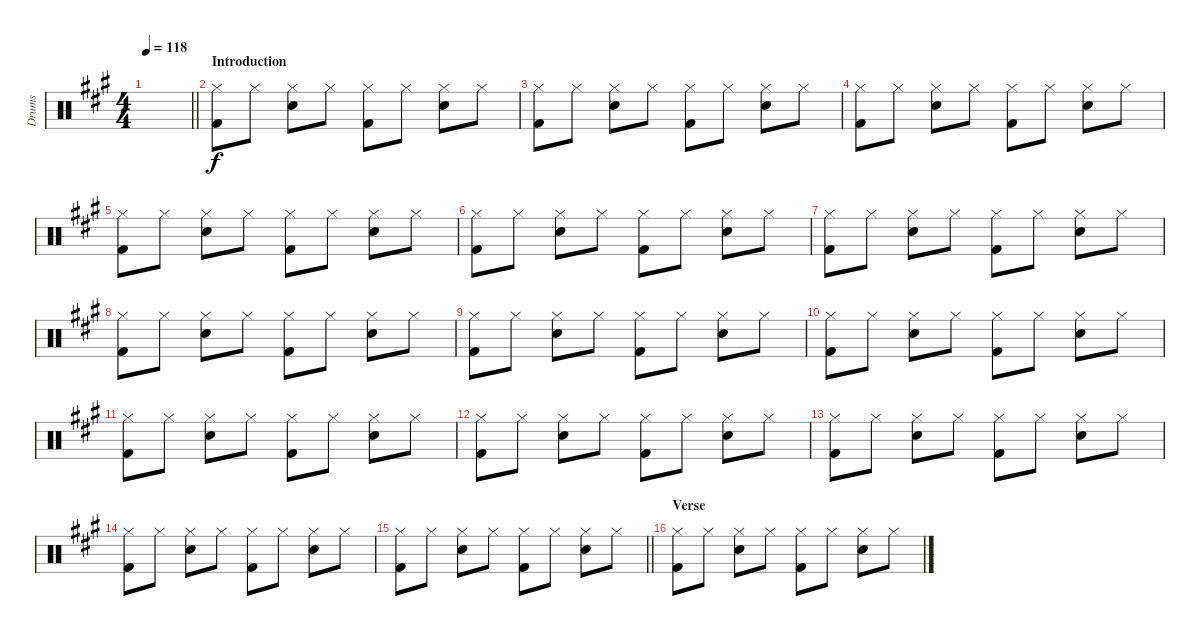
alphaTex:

\track ("Drums" "Drums") {instrument percussion}
\staff {score}
\articulation defaults
\ts (4 4)
\tempo 118
\clef neutral
\barLineRight lightlight
\ks f#minor
|
\section ("" "Introduction")
("Hi-Hat (closed)" "Kick (hit) 2").8 "Hi-Hat (closed)".8 ("Hi-Hat (closed)" "Snare (hit) 2").8 "Hi-Hat (closed)".8 ("Hi-Hat (closed)" "Kick (hit) 2").8 "Hi-Hat (closed)".8 ("Hi-Hat (closed)" "Snare (hit) 2").8 "Hi-Hat (closed)".8 |
("Hi-Hat (closed)" "Kick (hit) 2").8 "Hi-Hat (closed)".8 ("Hi-Hat (closed)" "Snare (hit) 2").8 "Hi-Hat (closed)".8 ("Hi-Hat (closed)" "Kick (hit) 2").8 "Hi-Hat (closed)".8 ("Hi-Hat (closed)" "Snare (hit) 2").8 "Hi-Hat (closed)".8 |
("Hi-Hat (closed)" "Kick (hit) 2").8 "Hi-Hat (closed)".8 ("Hi-Hat (closed)" "Snare (hit) 2").8 "Hi-Hat (closed)".8 ("Hi-Hat (closed)" "Kick (hit) 2").8 "Hi-Hat (closed)".8 ("Hi-Hat (closed)" "Snare (hit) 2").8 "Hi-Hat (closed)".8 |
("Hi-Hat (closed)" "Kick (hit) 2").8 "Hi-Hat (closed)".8 ("Hi-Hat (closed)" "Snare (hit) 2").8 "Hi-Hat (closed)".8 ("Hi-Hat (closed)" "Kick (hit) 2").8 "Hi-Hat (closed)".8 ("Hi-Hat (closed)" "Snare (hit) 2").8 "Hi-Hat (closed)".8 |
("Hi-Hat (closed)" "Kick (hit) 2").8 "Hi-Hat (closed)".8 ("Hi-Hat (closed)" "Snare (hit) 2").8 "Hi-Hat (closed)".8 ("Hi-Hat (closed)" "Kick (hit) 2").8 "Hi-Hat (closed)".8 ("Hi-Hat (closed)" "Snare (hit) 2").8 "Hi-Hat (closed)".8 |
("Hi-Hat (closed)" "Kick (hit) 2").8 "Hi-Hat (closed)".8 ("Hi-Hat (closed)" "Snare (hit) 2").8 "Hi-Hat (closed)".8 ("Hi-Hat (closed)" "Kick (hit) 2").8 "Hi-Hat (closed)".8 ("Hi-Hat (closed)" "Snare (hit) 2").8 "Hi-Hat (closed)".8 |
("Hi-Hat (closed)" "Kick (hit) 2").8 "Hi-Hat (closed)".8 ("Hi-Hat (closed)" "Snare (hit) 2").8 "Hi-Hat (closed)".8 ("Hi-Hat (closed)" "Kick (hit) 2").8 "Hi-Hat (closed)".8 ("Hi-Hat (closed)" "Snare (hit) 2").8 "Hi-Hat (closed)".8 |
("Hi-Hat (closed)" "Kick (hit) 2").8 "Hi-Hat (closed)".8 ("Hi-Hat (closed)" "Snare (hit) 2").8 "Hi-Hat (closed)".8 ("Hi-Hat (closed)" "Kick (hit) 2").8 "Hi-Hat (closed)".8 ("Hi-Hat (closed)" "Snare (hit) 2").8 "Hi-Hat (closed)".8 |
("Hi-Hat (closed)" "Kick (hit) 2").8 "Hi-Hat (closed)".8 ("Hi-Hat (closed)" "Snare (hit) 2").8 "Hi-Hat (closed)".8 ("Hi-Hat (closed)" "Kick (hit) 2").8 "Hi-Hat (closed)".8 ("Hi-Hat (closed)" "Snare (hit) 2").8 "Hi-Hat (closed)".8 |
("Hi-Hat (closed)" "Kick (hit) 2").8 "Hi-Hat (closed)".8 ("Hi-Hat (closed)" "Snare (hit) 2").8 "Hi-Hat (closed)".8 ("Hi-Hat (closed)" "Kick (hit) 2").8 "Hi-Hat (closed)".8 ("Hi-Hat (closed)" "Snare (hit) 2").8 "Hi-Hat (closed)".8 |
("Hi-Hat (closed)" "Kick (hit) 2").8 "Hi-Hat (closed)".8 ("Hi-Hat (closed)" "Snare (hit) 2").8 "Hi-Hat (closed)".8 ("Hi-Hat (closed)" "Kick (hit) 2").8 "Hi-Hat (closed)".8 ("Hi-Hat (closed)" "Snare (hit) 2").8 "Hi-Hat (closed)".8 |
("Hi-Hat (closed)" "Kick (hit) 2").8 "Hi-Hat (closed)".8 ("Hi-Hat (closed)" "Snare (hit) 2").8 "Hi-Hat (closed)".8 ("Hi-Hat (closed)" "Kick (hit) 2").8 "Hi-Hat (closed)".8 ("Hi-Hat (closed)" "Snare (hit) 2").8 "Hi-Hat (closed)".8 |
("Hi-Hat (closed)" "Kick (hit) 2").8 "Hi-Hat (closed)".8 ("Hi-Hat (closed)" "Snare (hit) 2").8 "Hi-Hat (closed)".8 ("Hi-Hat (closed)" "Kick (hit) 2").8 "Hi-Hat (closed)".8 ("Hi-Hat (closed)" "Snare (hit) 2").8 "Hi-Hat (closed)".8 |
\barLineRight lightlight
("Hi-Hat (closed)" "Kick (hit) 2").8 "Hi-Hat (closed)".8 ("Hi-Hat (closed)" "Snare (hit) 2").8 "Hi-Hat (closed)".8 ("Hi-Hat (closed)" "Kick (hit) 2").8 "Hi-Hat (closed)".8 ("Hi-Hat (closed)" "Snare (hit) 2").8 "Hi-Hat (closed)".8 |
\section ("" "Verse")
("Hi-Hat (closed)" "Kick (hit) 2").8 "Hi-Hat (closed)".8 ("Hi-Hat (closed)" "Snare (hit) 2").8 "Hi-Hat (closed)".8 ("Hi-Hat (closed)" "Kick (hit) 2").8 "Hi-Hat (closed)".8 ("Hi-Hat (closed)" "Snare (hit) 2").8 "Hi-Hat (closed)".8
